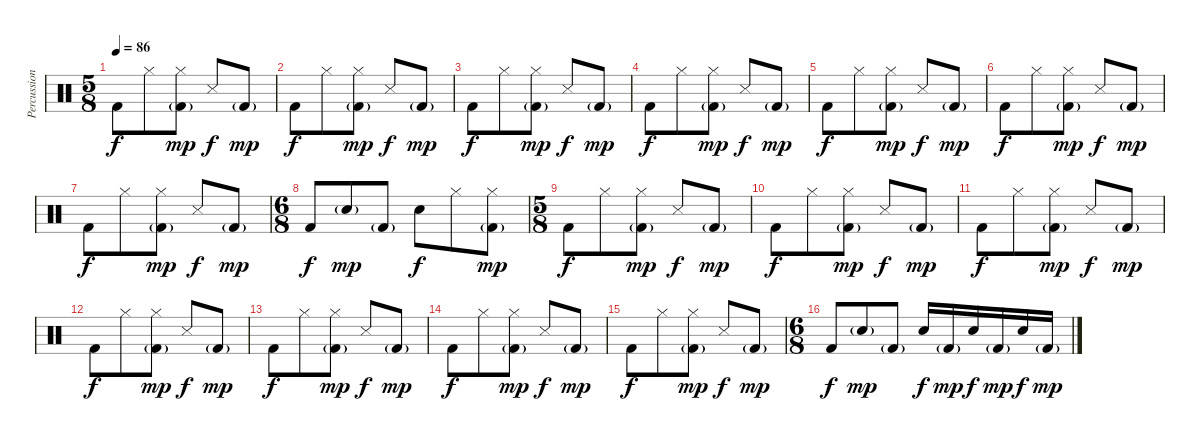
\track ("Percussion" "Percussion") {instrument percussion}
\staff {score}
\articulation defaults
\ts (5 8)
\tempo 86
\clef neutral
\ks c "Kick (hit) 2".8{dy f} "Hi-Hat (closed)".8
("Hi-Hat (closed)" "Kick (hit) 2"{g}).8{dy mp} "Snare (side stick) 3".8{dy f} "Kick (hit) 2"{g}.8{dy mp} |
"Kick (hit) 2".8{dy f} "Hi-Hat (closed)".8 ("Hi-Hat (closed)" "Kick (hit) 2"{g}).8{dy mp} "Snare (side stick) 3".8{dy f} "Kick (hit) 2"{g}.8{dy mp} |
"Kick (hit) 2".8{dy f} "Hi-Hat (closed)".8 ("Hi-Hat (closed)" "Kick (hit) 2"{g}).8{dy mp} "Snare (side stick) 3".8{dy f} "Kick (hit) 2"{g}.8{dy mp} |
"Kick (hit) 2".8{dy f} "Hi-Hat (closed)".8 ("Hi-Hat (closed)" "Kick (hit) 2"{g}).8{dy mp} "Snare (side stick) 3".8{dy f} "Kick (hit) 2"{g}.8{dy mp} |
"Kick (hit) 2".8{dy f} "Hi-Hat (closed)".8 ("Hi-Hat (closed)" "Kick (hit) 2"{g}).8{dy mp} "Snare (side stick) 3".8{dy f} "Kick (hit) 2"{g}.8{dy mp} |
"Kick (hit) 2".8{dy f} "Hi-Hat (closed)".8 ("Hi-Hat (closed)" "Kick (hit) 2"{g}).8{dy mp} "Snare (side stick) 3".8{dy f} "Kick (hit) 2"{g}.8{dy mp} |
"Kick (hit) 2".8{dy f} "Hi-Hat (closed)".8 ("Hi-Hat (closed)" "Kick (hit) 2"{g}).8{dy mp} "Snare (side stick) 3".8{dy f} "Kick (hit) 2"{g}.8{dy mp} |
\ts (6 8)
"Kick (hit) 2".8{dy f} "Snare (hit) 2"{g}.8{dy mp} "Kick (hit) 2"{g}.8 "Snare (hit) 2".8{dy f} "Hi-Hat (closed)".8 ("Hi-Hat (closed)" "Kick (hit) 2"{g}).8{dy mp} |
\ts (5 8)
"Kick (hit) 2".8{dy f} "Hi-Hat (closed)".8 ("Hi-Hat (closed)" "Kick (hit) 2"{g}).8{dy mp} "Snare (side stick) 3".8{dy f} "Kick (hit) 2"{g}.8{dy mp} |
"Kick (hit) 2".8{dy f} "Hi-Hat (closed)".8 ("Hi-Hat (closed)" "Kick (hit) 2"{g}).8{dy mp} "Snare (side stick) 3".8{dy f} "Kick (hit) 2"{g}.8{dy mp} |
"Kick (hit) 2".8{dy f} "Hi-Hat (closed)".8 ("Hi-Hat (closed)" "Kick (hit) 2"{g}).8{dy mp} "Snare (side stick) 3".8{dy f} "Kick (hit) 2"{g}.8{dy mp} |
"Kick (hit) 2".8{dy f} "Hi-Hat (closed)".8 ("Hi-Hat (closed)" "Kick (hit) 2"{g}).8{dy mp} "Snare (side stick) 3".8{dy f} "Kick (hit) 2"{g}.8{dy mp} |
"Kick (hit) 2".8{dy f} "Hi-Hat (closed)".8 ("Hi-Hat (closed)" "Kick (hit) 2"{g}).8{dy mp} "Snare (side stick) 3".8{dy f} "Kick (hit) 2"{g}.8{dy mp} |
"Kick (hit) 2".8{dy f} "Hi-Hat (closed)".8 ("Hi-Hat (closed)" "Kick (hit) 2"{g}).8{dy mp} "Snare (side stick) 3".8{dy f} "Kick (hit) 2"{g}.8{dy mp} |
"Kick (hit) 2".8{dy f} "Hi-Hat (closed)".8 ("Hi-Hat (closed)" "Kick (hit) 2"{g}).8{dy mp} "Snare (side stick) 3".8{dy f} "Kick (hit) 2"{g}.8{dy mp} |
\ts (6 8)
"Kick (hit) 2".8{dy f} "Snare (hit) 2"{g}.8{dy mp} "Kick (hit) 2"{g}.8 "Snare (hit) 2".16{dy f} "Kick (hit) 2"{g}.16{dy mp} "Snare (hit) 2".16{dy f} "Kick (hit) 2"{g}.16{dy mp} "Snare (hit) 2".16{dy f} "Kick (hit) 2"{g}.16{dy mp}
